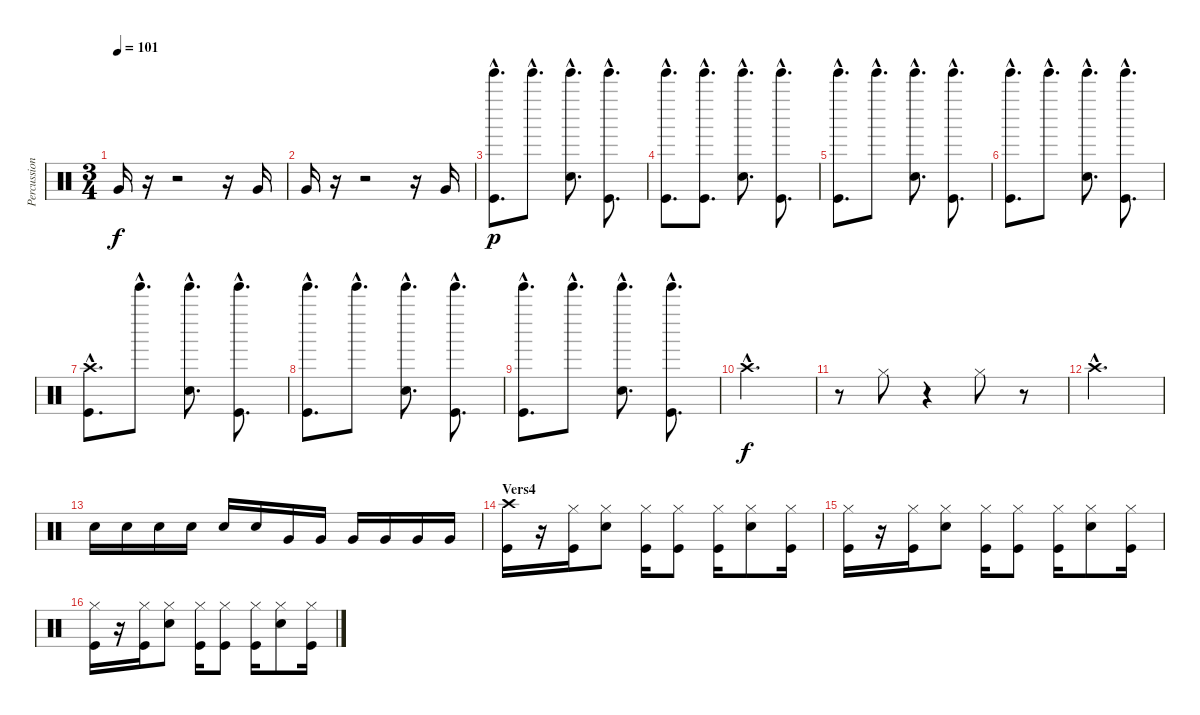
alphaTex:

\track ("Percussion" "Percussion") {instrument percussion}
\staff {score}
\articulation defaults
\ts (3 4)
\tempo 101
\clef neutral
\ks c "Very Low Tom (hit)".16{dy f}
r.16 r.2 r.16 "Very Low Tom (hit)".16 |
"Very Low Tom (hit)".16 r.16 r.2 r.16 "Very Low Tom (hit)".16 |
("Tinkle Bell (hit)"{hac} "Kick (hit)"{hac}).8{d dy p} "Tinkle Bell (hit)"{hac}.8{d} ("Tinkle Bell (hit)"{hac} "Snare (hit) 2"{hac}).8{d} ("Tinkle Bell (hit)"{hac} "Kick (hit)"{hac}).8{d} |
("Tinkle Bell (hit)"{hac} "Kick (hit)"{hac}).8{d} ("Tinkle Bell (hit)"{hac} "Kick (hit)"{hac}).8{d} ("Tinkle Bell (hit)"{hac} "Snare (hit) 2"{hac}).8{d} ("Tinkle Bell (hit)"{hac} "Kick (hit)"{hac}).8{d} |
("Tinkle Bell (hit)"{hac} "Kick (hit)"{hac}).8{d} "Tinkle Bell (hit)"{hac}.8{d} ("Tinkle Bell (hit)"{hac} "Snare (hit) 2"{hac}).8{d} ("Tinkle Bell (hit)"{hac} "Kick (hit)"{hac}).8{d} |
("Tinkle Bell (hit)"{hac} "Kick (hit)"{hac}).8{d} "Tinkle Bell (hit)"{hac}.8{d} ("Tinkle Bell (hit)"{hac} "Snare (hit) 2"{hac}).8{d} ("Tinkle Bell (hit)"{hac} "Kick (hit)"{hac}).8{d} |
("Crash high (hit)"{hac} "Kick (hit)"{hac}).8{d} "Tinkle Bell (hit)"{hac}.8{d} ("Tinkle Bell (hit)"{hac} "Snare (hit) 2"{hac}).8{d} ("Tinkle Bell (hit)"{hac} "Kick (hit)"{hac}).8{d} |
("Tinkle Bell (hit)"{hac} "Kick (hit)"{hac}).8{d} "Tinkle Bell (hit)"{hac}.8{d} ("Tinkle Bell (hit)"{hac} "Snare (hit) 2"{hac}).8{d} ("Tinkle Bell (hit)"{hac} "Kick (hit)"{hac}).8{d} |
("Tinkle Bell (hit)"{hac} "Kick (hit)"{hac}).8{d} "Tinkle Bell (hit)"{hac}.8{d} ("Tinkle Bell (hit)"{hac} "Snare (hit) 2"{hac}).8{d} ("Tinkle Bell (hit)"{hac} "Kick (hit)"{hac}).8{d} |
"Crash high (hit)"{hac}.2{d dy f} |
r.8 "Hi-Hat (closed)".8 r.4 "Hi-Hat (closed)".8 r.8 |
"Crash high (hit)"{hac}.2{d} |
"Electric Snare (hit)".16 "Electric Snare (hit)".16 "Electric Snare (hit)".16 "Electric Snare (hit)".16 "Electric Snare (hit)".16 "Electric Snare (hit)".16 "Very Low Tom (hit)".16 "Very Low Tom (hit)".16 "Very Low Tom (hit)".16 "Very Low Tom (hit)".16 "Very Low Tom (hit)".16 "Very Low Tom (hit)".16 |
\section ("" "Vers4")
("Crash high (hit)" "Kick (hit)").16 r.16 ("Hi-Hat (closed)" "Kick (hit)").16 ("Hi-Hat (closed)" "Electric Snare (hit)").8 ("Hi-Hat (closed)" "Kick (hit)").16 ("Hi-Hat (closed)" "Kick (hit)").8 ("Hi-Hat (closed)" "Kick (hit)").16 ("Hi-Hat (closed)" "Electric Snare (hit)").8 ("Hi-Hat (closed)" "Kick (hit)").16 |
("Hi-Hat (closed)" "Kick (hit)").16 r.16 ("Hi-Hat (closed)" "Kick (hit)").16 ("Hi-Hat (closed)" "Electric Snare (hit)").8 ("Hi-Hat (closed)" "Kick (hit)").16 ("Hi-Hat (closed)" "Kick (hit)").8 ("Hi-Hat (closed)" "Kick (hit)").16 ("Hi-Hat (closed)" "Electric Snare (hit)").8 ("Hi-Hat (closed)" "Kick (hit)").16 |
("Hi-Hat (closed)" "Kick (hit)").16 r.16 ("Hi-Hat (closed)" "Kick (hit)").16 ("Hi-Hat (closed)" "Electric Snare (hit)").8 ("Hi-Hat (closed)" "Kick (hit)").16 ("Hi-Hat (closed)" "Kick (hit)").8 ("Hi-Hat (closed)" "Kick (hit)").16 ("Hi-Hat (closed)" "Electric Snare (hit)").8 ("Hi-Hat (closed)" "Kick (hit)").16
